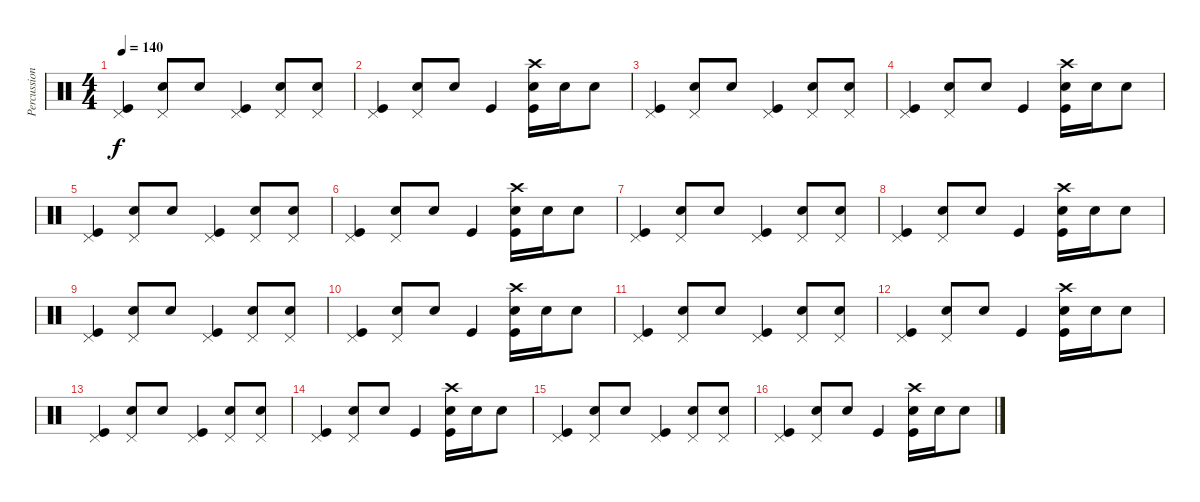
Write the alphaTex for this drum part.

\track ("Percussion" "Percussion") {instrument percussion}
\staff {score}
\articulation defaults
\ts (4 4)
\tempo 140
\clef neutral
\ks c
("Pedal Hi-Hat (hit)" "Kick (hit)").4{dy f} ("Pedal Hi-Hat (hit)" "Snare (hit) 2").8 "Snare (hit) 2".8 ("Pedal Hi-Hat (hit)" "Kick (hit)").4 ("Pedal Hi-Hat (hit)" "Snare (hit) 2").8 ("Pedal Hi-Hat (hit)" "Snare (hit) 2").8 |
("Pedal Hi-Hat (hit)" "Kick (hit)").4 ("Pedal Hi-Hat (hit)" "Snare (hit) 2").8 "Snare (hit) 2".8 "Kick (hit)".4 ("Crash high (hit)" "Kick (hit)" "Snare (hit) 2").16 "Snare (hit) 2".16 "Snare (hit) 2".8 |
("Pedal Hi-Hat (hit)" "Kick (hit)").4 ("Pedal Hi-Hat (hit)" "Snare (hit) 2").8 "Snare (hit) 2".8 ("Pedal Hi-Hat (hit)" "Kick (hit)").4 ("Pedal Hi-Hat (hit)" "Snare (hit) 2").8 ("Pedal Hi-Hat (hit)" "Snare (hit) 2").8 |
("Pedal Hi-Hat (hit)" "Kick (hit)").4 ("Pedal Hi-Hat (hit)" "Snare (hit) 2").8 "Snare (hit) 2".8 "Kick (hit)".4 ("Crash high (hit)" "Kick (hit)" "Snare (hit) 2").16 "Snare (hit) 2".16 "Snare (hit) 2".8 |
("Pedal Hi-Hat (hit)" "Kick (hit)").4 ("Pedal Hi-Hat (hit)" "Snare (hit) 2").8 "Snare (hit) 2".8 ("Pedal Hi-Hat (hit)" "Kick (hit)").4 ("Pedal Hi-Hat (hit)" "Snare (hit) 2").8 ("Pedal Hi-Hat (hit)" "Snare (hit) 2").8 |
("Pedal Hi-Hat (hit)" "Kick (hit)").4 ("Pedal Hi-Hat (hit)" "Snare (hit) 2").8 "Snare (hit) 2".8 "Kick (hit)".4 ("Crash high (hit)" "Kick (hit)" "Snare (hit) 2").16 "Snare (hit) 2".16 "Snare (hit) 2".8 |
("Pedal Hi-Hat (hit)" "Kick (hit)").4 ("Pedal Hi-Hat (hit)" "Snare (hit) 2").8 "Snare (hit) 2".8 ("Pedal Hi-Hat (hit)" "Kick (hit)").4 ("Pedal Hi-Hat (hit)" "Snare (hit) 2").8 ("Pedal Hi-Hat (hit)" "Snare (hit) 2").8 |
("Pedal Hi-Hat (hit)" "Kick (hit)").4 ("Pedal Hi-Hat (hit)" "Snare (hit) 2").8 "Snare (hit) 2".8 "Kick (hit)".4 ("Crash high (hit)" "Kick (hit)" "Snare (hit) 2").16 "Snare (hit) 2".16 "Snare (hit) 2".8 |
("Pedal Hi-Hat (hit)" "Kick (hit)").4 ("Pedal Hi-Hat (hit)" "Snare (hit) 2").8 "Snare (hit) 2".8 ("Pedal Hi-Hat (hit)" "Kick (hit)").4 ("Pedal Hi-Hat (hit)" "Snare (hit) 2").8 ("Pedal Hi-Hat (hit)" "Snare (hit) 2").8 |
("Pedal Hi-Hat (hit)" "Kick (hit)").4 ("Pedal Hi-Hat (hit)" "Snare (hit) 2").8 "Snare (hit) 2".8 "Kick (hit)".4 ("Crash high (hit)" "Kick (hit)" "Snare (hit) 2").16 "Snare (hit) 2".16 "Snare (hit) 2".8 |
("Pedal Hi-Hat (hit)" "Kick (hit)").4 ("Pedal Hi-Hat (hit)" "Snare (hit) 2").8 "Snare (hit) 2".8 ("Pedal Hi-Hat (hit)" "Kick (hit)").4 ("Pedal Hi-Hat (hit)" "Snare (hit) 2").8 ("Pedal Hi-Hat (hit)" "Snare (hit) 2").8 |
("Pedal Hi-Hat (hit)" "Kick (hit)").4 ("Pedal Hi-Hat (hit)" "Snare (hit) 2").8 "Snare (hit) 2".8 "Kick (hit)".4 ("Crash high (hit)" "Kick (hit)" "Snare (hit) 2").16 "Snare (hit) 2".16 "Snare (hit) 2".8 |
("Pedal Hi-Hat (hit)" "Kick (hit)").4 ("Pedal Hi-Hat (hit)" "Snare (hit) 2").8 "Snare (hit) 2".8 ("Pedal Hi-Hat (hit)" "Kick (hit)").4 ("Pedal Hi-Hat (hit)" "Snare (hit) 2").8 ("Pedal Hi-Hat (hit)" "Snare (hit) 2").8 |
("Pedal Hi-Hat (hit)" "Kick (hit)").4 ("Pedal Hi-Hat (hit)" "Snare (hit) 2").8 "Snare (hit) 2".8 "Kick (hit)".4 ("Crash high (hit)" "Kick (hit)" "Snare (hit) 2").16 "Snare (hit) 2".16 "Snare (hit) 2".8 |
("Pedal Hi-Hat (hit)" "Kick (hit)").4 ("Pedal Hi-Hat (hit)" "Snare (hit) 2").8 "Snare (hit) 2".8 ("Pedal Hi-Hat (hit)" "Kick (hit)").4 ("Pedal Hi-Hat (hit)" "Snare (hit) 2").8 ("Pedal Hi-Hat (hit)" "Snare (hit) 2").8 |
("Pedal Hi-Hat (hit)" "Kick (hit)").4 ("Pedal Hi-Hat (hit)" "Snare (hit) 2").8 "Snare (hit) 2".8 "Kick (hit)".4 ("Crash high (hit)" "Kick (hit)" "Snare (hit) 2").16 "Snare (hit) 2".16 "Snare (hit) 2".8
